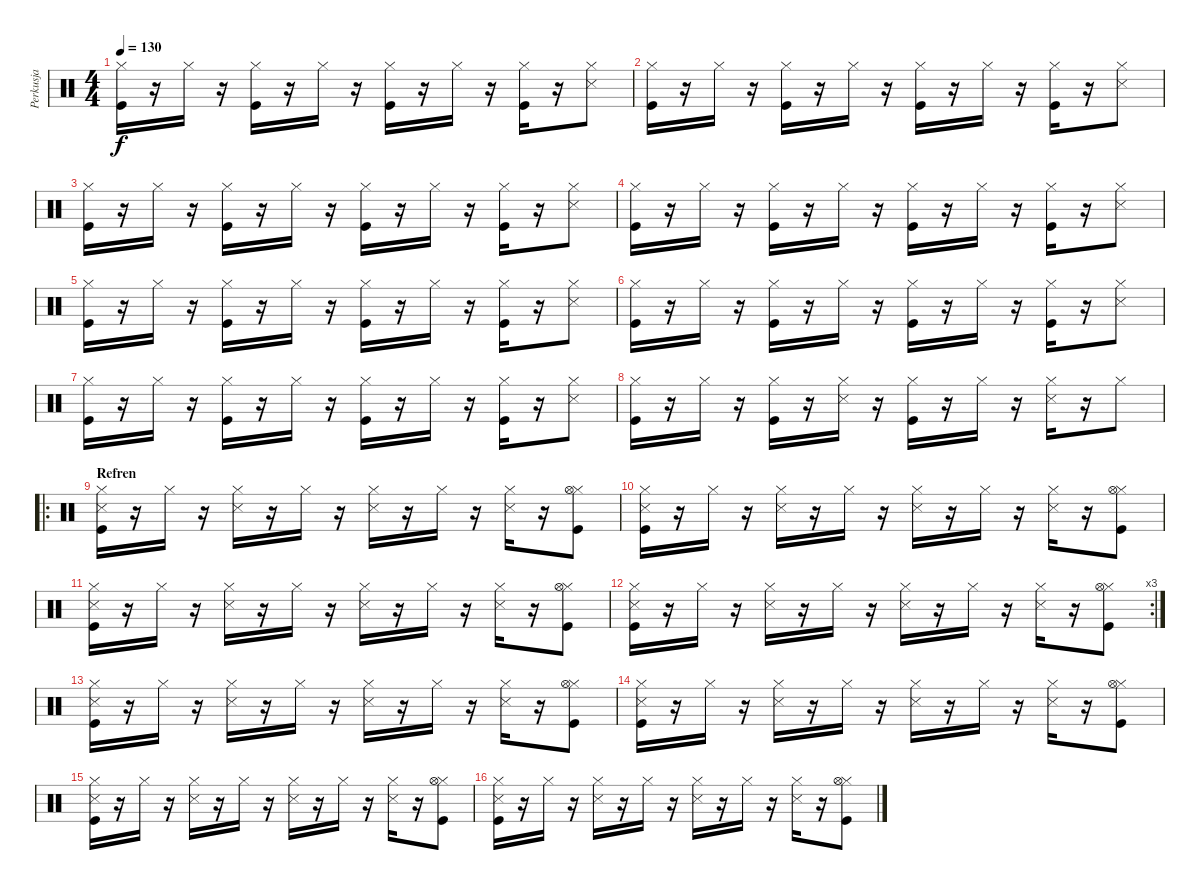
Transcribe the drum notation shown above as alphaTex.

\track ("Perkusja" "Perkusja") {instrument percussion}
\staff {score}
\articulation defaults
\ts (4 4)
\tempo 130
\clef neutral
\ks c
("Kick (hit)" "Hi-Hat (closed)").16{dy f} r.16 "Hi-Hat (closed)".16 r.16 ("Kick (hit)" "Hi-Hat (closed)").16 r.16 "Hi-Hat (closed)".16 r.16 ("Kick (hit)" "Hi-Hat (closed)").16 r.16 "Hi-Hat (closed)".16 r.16 ("Kick (hit)" "Hi-Hat (closed)").16 r.16 ("Hi-Hat (closed)" "Snare (side stick) 3").8 |
("Kick (hit)" "Hi-Hat (closed)").16 r.16 "Hi-Hat (closed)".16 r.16 ("Kick (hit)" "Hi-Hat (closed)").16 r.16 "Hi-Hat (closed)".16 r.16 ("Kick (hit)" "Hi-Hat (closed)").16 r.16 "Hi-Hat (closed)".16 r.16 ("Kick (hit)" "Hi-Hat (closed)").16 r.16 ("Hi-Hat (closed)" "Snare (side stick) 3").8 |
("Kick (hit)" "Hi-Hat (closed)").16 r.16 "Hi-Hat (closed)".16 r.16 ("Kick (hit)" "Hi-Hat (closed)").16 r.16 "Hi-Hat (closed)".16 r.16 ("Kick (hit)" "Hi-Hat (closed)").16 r.16 "Hi-Hat (closed)".16 r.16 ("Kick (hit)" "Hi-Hat (closed)").16 r.16 ("Hi-Hat (closed)" "Snare (side stick) 3").8 |
("Kick (hit)" "Hi-Hat (closed)").16 r.16 "Hi-Hat (closed)".16 r.16 ("Kick (hit)" "Hi-Hat (closed)").16 r.16 "Hi-Hat (closed)".16 r.16 ("Kick (hit)" "Hi-Hat (closed)").16 r.16 "Hi-Hat (closed)".16 r.16 ("Kick (hit)" "Hi-Hat (closed)").16 r.16 ("Hi-Hat (closed)" "Snare (side stick) 3").8 |
("Kick (hit)" "Hi-Hat (closed)").16 r.16 "Hi-Hat (closed)".16 r.16 ("Kick (hit)" "Hi-Hat (closed)").16 r.16 "Hi-Hat (closed)".16 r.16 ("Kick (hit)" "Hi-Hat (closed)").16 r.16 "Hi-Hat (closed)".16 r.16 ("Kick (hit)" "Hi-Hat (closed)").16 r.16 ("Hi-Hat (closed)" "Snare (side stick) 3").8 |
("Kick (hit)" "Hi-Hat (closed)").16 r.16 "Hi-Hat (closed)".16 r.16 ("Kick (hit)" "Hi-Hat (closed)").16 r.16 "Hi-Hat (closed)".16 r.16 ("Kick (hit)" "Hi-Hat (closed)").16 r.16 "Hi-Hat (closed)".16 r.16 ("Kick (hit)" "Hi-Hat (closed)").16 r.16 ("Hi-Hat (closed)" "Snare (side stick) 3").8 |
("Kick (hit)" "Hi-Hat (closed)").16 r.16 "Hi-Hat (closed)".16 r.16 ("Kick (hit)" "Hi-Hat (closed)").16 r.16 "Hi-Hat (closed)".16 r.16 ("Kick (hit)" "Hi-Hat (closed)").16 r.16 "Hi-Hat (closed)".16 r.16 ("Kick (hit)" "Hi-Hat (closed)").16 r.16 ("Hi-Hat (closed)" "Snare (side stick) 3").8 |
("Kick (hit)" "Hi-Hat (closed)").16 r.16 "Hi-Hat (closed)".16 r.16 ("Kick (hit)" "Hi-Hat (closed)").16 r.16 ("Hi-Hat (closed)" "Snare (side stick) 3").16 r.16 ("Kick (hit)" "Hi-Hat (closed)").16 r.16 "Hi-Hat (closed)".16 r.16 ("Snare (side stick) 3" "Hi-Hat (closed)").16 r.16 "Hi-Hat (closed)".8 |
\ro
\section ("" "Refren")
("Snare (side stick) 3" "Hi-Hat (closed)" "Kick (hit)").16 r.16 "Hi-Hat (closed)".16 r.16 ("Snare (side stick) 3" "Hi-Hat (closed)").16 r.16 "Hi-Hat (closed)".16 r.16 ("Snare (side stick) 3" "Hi-Hat (closed)").16 r.16 "Hi-Hat (closed)".16 r.16 ("Snare (side stick) 3" "Hi-Hat (closed)").16 r.16 ("Hi-Hat (closed)" "Hi-Hat (open)" "Kick (hit)").8 |
("Snare (side stick) 3" "Hi-Hat (closed)" "Kick (hit)").16 r.16 "Hi-Hat (closed)".16 r.16 ("Snare (side stick) 3" "Hi-Hat (closed)").16 r.16 "Hi-Hat (closed)".16 r.16 ("Snare (side stick) 3" "Hi-Hat (closed)").16 r.16 "Hi-Hat (closed)".16 r.16 ("Snare (side stick) 3" "Hi-Hat (closed)").16 r.16 ("Hi-Hat (closed)" "Hi-Hat (open)" "Kick (hit)").8 |
("Snare (side stick) 3" "Hi-Hat (closed)" "Kick (hit)").16 r.16 "Hi-Hat (closed)".16 r.16 ("Snare (side stick) 3" "Hi-Hat (closed)").16 r.16 "Hi-Hat (closed)".16 r.16 ("Snare (side stick) 3" "Hi-Hat (closed)").16 r.16 "Hi-Hat (closed)".16 r.16 ("Snare (side stick) 3" "Hi-Hat (closed)").16 r.16 ("Hi-Hat (closed)" "Hi-Hat (open)" "Kick (hit)").8 |
\rc 3
("Snare (side stick) 3" "Hi-Hat (closed)" "Kick (hit)").16 r.16 "Hi-Hat (closed)".16 r.16 ("Snare (side stick) 3" "Hi-Hat (closed)").16 r.16 "Hi-Hat (closed)".16 r.16 ("Snare (side stick) 3" "Hi-Hat (closed)").16 r.16 "Hi-Hat (closed)".16 r.16 ("Snare (side stick) 3" "Hi-Hat (closed)").16 r.16 ("Hi-Hat (closed)" "Hi-Hat (open)" "Kick (hit)").8 |
("Snare (side stick) 3" "Hi-Hat (closed)" "Kick (hit)").16 r.16 "Hi-Hat (closed)".16 r.16 ("Snare (side stick) 3" "Hi-Hat (closed)").16 r.16 "Hi-Hat (closed)".16 r.16 ("Snare (side stick) 3" "Hi-Hat (closed)").16 r.16 "Hi-Hat (closed)".16 r.16 ("Snare (side stick) 3" "Hi-Hat (closed)").16 r.16 ("Hi-Hat (closed)" "Hi-Hat (open)" "Kick (hit)").8 |
("Snare (side stick) 3" "Hi-Hat (closed)" "Kick (hit)").16 r.16 "Hi-Hat (closed)".16 r.16 ("Snare (side stick) 3" "Hi-Hat (closed)").16 r.16 "Hi-Hat (closed)".16 r.16 ("Snare (side stick) 3" "Hi-Hat (closed)").16 r.16 "Hi-Hat (closed)".16 r.16 ("Snare (side stick) 3" "Hi-Hat (closed)").16 r.16 ("Hi-Hat (closed)" "Hi-Hat (open)" "Kick (hit)").8 |
("Snare (side stick) 3" "Hi-Hat (closed)" "Kick (hit)").16 r.16 "Hi-Hat (closed)".16 r.16 ("Snare (side stick) 3" "Hi-Hat (closed)").16 r.16 "Hi-Hat (closed)".16 r.16 ("Snare (side stick) 3" "Hi-Hat (closed)").16 r.16 "Hi-Hat (closed)".16 r.16 ("Snare (side stick) 3" "Hi-Hat (closed)").16 r.16 ("Hi-Hat (closed)" "Hi-Hat (open)" "Kick (hit)").8 |
("Snare (side stick) 3" "Hi-Hat (closed)" "Kick (hit)").16 r.16 "Hi-Hat (closed)".16 r.16 ("Snare (side stick) 3" "Hi-Hat (closed)").16 r.16 "Hi-Hat (closed)".16 r.16 ("Snare (side stick) 3" "Hi-Hat (closed)").16 r.16 "Hi-Hat (closed)".16 r.16 ("Snare (side stick) 3" "Hi-Hat (closed)").16 r.16 ("Hi-Hat (closed)" "Hi-Hat (open)" "Kick (hit)").8
